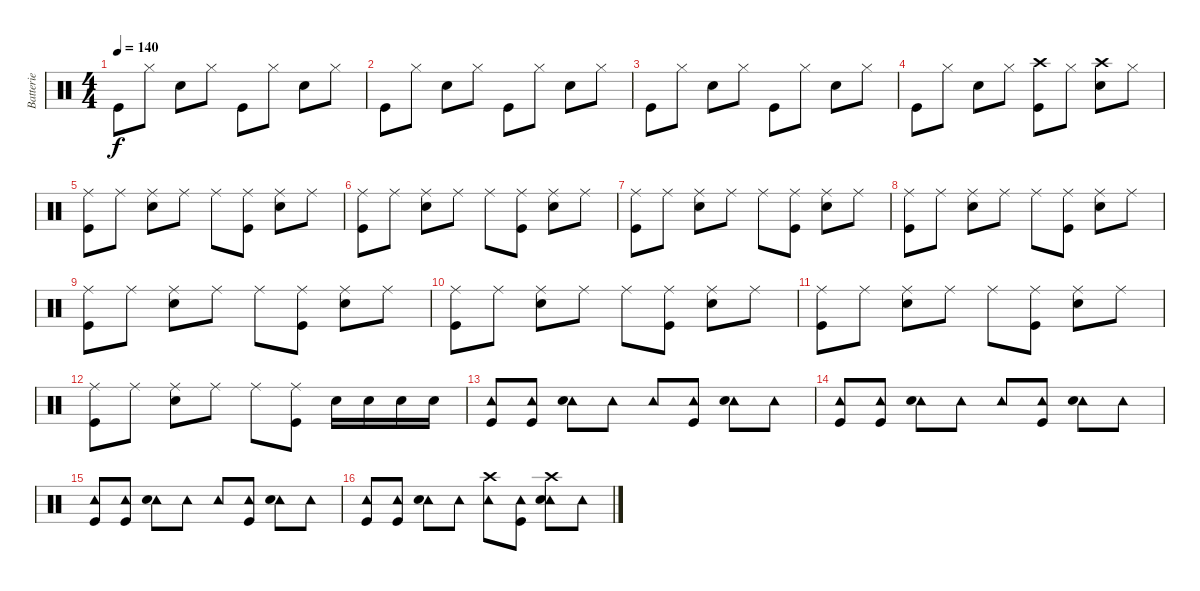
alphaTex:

\track ("Batterie" "Batterie") {instrument percussion}
\staff {score}
\articulation defaults
\ts (4 4)
\tempo 140
\clef neutral
\ks c "Kick (hit)".8{dy f} "Hi-Hat (closed)".8 "Electric Snare (hit)".8 "Hi-Hat (closed)".8 "Kick (hit)".8 "Hi-Hat (closed)".8 "Electric Snare (hit)".8 "Hi-Hat (closed)".8
|
"Kick (hit)".8 "Hi-Hat (closed)".8 "Electric Snare (hit)".8 "Hi-Hat (closed)".8 "Kick (hit)".8 "Hi-Hat (closed)".8 "Electric Snare (hit)".8 "Hi-Hat (closed)".8 |
"Kick (hit)".8 "Hi-Hat (closed)".8 "Electric Snare (hit)".8 "Hi-Hat (closed)".8 "Kick (hit)".8 "Hi-Hat (closed)".8 "Electric Snare (hit)".8 "Hi-Hat (closed)".8 |
"Kick (hit)".8 "Hi-Hat (closed)".8 "Electric Snare (hit)".8 "Hi-Hat (closed)".8 ("Crash high (hit)" "Kick (hit)").8 "Hi-Hat (closed)".8 ("Crash high (hit)" "Electric Snare (hit)").8 "Hi-Hat (closed)".8 |
("Ride (middle)" "Kick (hit)").8 "Ride (middle)".8 ("Ride (middle)" "Electric Snare (hit)").8 "Ride (middle)".8 "Ride (middle)".8 ("Ride (middle)" "Kick (hit)").8 ("Ride (middle)" "Electric Snare (hit)").8 "Ride (middle)".8 |
("Ride (middle)" "Kick (hit)").8 "Ride (middle)".8 ("Ride (middle)" "Electric Snare (hit)").8 "Ride (middle)".8 "Ride (middle)".8 ("Ride (middle)" "Kick (hit)").8 ("Ride (middle)" "Electric Snare (hit)").8 "Ride (middle)".8 |
("Ride (middle)" "Kick (hit)").8 "Ride (middle)".8 ("Ride (middle)" "Electric Snare (hit)").8 "Ride (middle)".8 "Ride (middle)".8 ("Ride (middle)" "Kick (hit)").8 ("Ride (middle)" "Electric Snare (hit)").8 "Ride (middle)".8 |
("Ride (middle)" "Kick (hit)").8 "Ride (middle)".8 ("Ride (middle)" "Electric Snare (hit)").8 "Ride (middle)".8 "Ride (middle)".8 ("Ride (middle)" "Kick (hit)").8 ("Ride (middle)" "Electric Snare (hit)").8 "Ride (middle)".8 |
("Ride (middle)" "Kick (hit)").8 "Ride (middle)".8 ("Ride (middle)" "Electric Snare (hit)").8 "Ride (middle)".8 "Ride (middle)".8 ("Ride (middle)" "Kick (hit)").8 ("Ride (middle)" "Electric Snare (hit)").8 "Ride (middle)".8 |
("Ride (middle)" "Kick (hit)").8 "Ride (middle)".8 ("Ride (middle)" "Electric Snare (hit)").8 "Ride (middle)".8 "Ride (middle)".8 ("Ride (middle)" "Kick (hit)").8 ("Ride (middle)" "Electric Snare (hit)").8 "Ride (middle)".8 |
("Ride (middle)" "Kick (hit)").8 "Ride (middle)".8 ("Ride (middle)" "Electric Snare (hit)").8 "Ride (middle)".8 "Ride (middle)".8 ("Ride (middle)" "Kick (hit)").8 ("Ride (middle)" "Electric Snare (hit)").8 "Ride (middle)".8 |
("Ride (middle)" "Kick (hit)").8 "Ride (middle)".8 ("Ride (middle)" "Electric Snare (hit)").8 "Ride (middle)".8 "Ride (middle)".8 ("Ride (middle)" "Kick (hit)").8 "Electric Snare (hit)".16 "Electric Snare (hit)".16 "Electric Snare (hit)".16 "Electric Snare (hit)".16 |
("Tambourine (hit)" "Kick (hit)").8 ("Tambourine (hit)" "Kick (hit)").8 ("Tambourine (hit)" "Electric Snare (hit)").8 "Tambourine (hit)".8 "Tambourine (hit)".8 ("Tambourine (hit)" "Kick (hit)").8 ("Tambourine (hit)" "Electric Snare (hit)").8 "Tambourine (hit)".8 |
("Tambourine (hit)" "Kick (hit)").8 ("Tambourine (hit)" "Kick (hit)").8 ("Tambourine (hit)" "Electric Snare (hit)").8 "Tambourine (hit)".8 "Tambourine (hit)".8 ("Tambourine (hit)" "Kick (hit)").8 ("Tambourine (hit)" "Electric Snare (hit)").8 "Tambourine (hit)".8 |
("Tambourine (hit)" "Kick (hit)").8 ("Tambourine (hit)" "Kick (hit)").8 ("Tambourine (hit)" "Electric Snare (hit)").8 "Tambourine (hit)".8 "Tambourine (hit)".8 ("Tambourine (hit)" "Kick (hit)").8 ("Tambourine (hit)" "Electric Snare (hit)").8 "Tambourine (hit)".8 |
("Tambourine (hit)" "Kick (hit)").8 ("Tambourine (hit)" "Kick (hit)").8 ("Tambourine (hit)" "Electric Snare (hit)").8 "Tambourine (hit)".8 ("Tambourine (hit)" "Crash high (hit)").8 ("Tambourine (hit)" "Kick (hit)").8 ("Tambourine (hit)" "Crash high (hit)" "Electric Snare (hit)").8 "Tambourine (hit)".8
